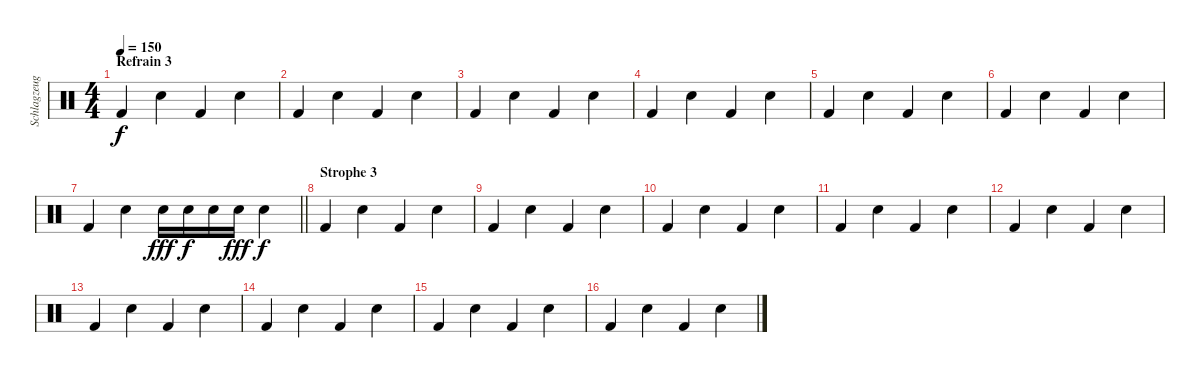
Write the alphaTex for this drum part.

\track ("Schlagzeug" "Schlagzeug") {instrument percussion}
\staff {score}
\articulation defaults
\ts (4 4)
\section ("" "Refrain 3")
\tempo 150
\clef neutral
\ks c "Kick (hit) 2".4{dy f} "Electric Snare (hit)".4 "Kick (hit) 2".4 "Electric Snare (hit)".4
|
"Kick (hit) 2".4 "Electric Snare (hit)".4 "Kick (hit) 2".4 "Electric Snare (hit)".4 |
"Kick (hit) 2".4 "Electric Snare (hit)".4 "Kick (hit) 2".4 "Electric Snare (hit)".4 |
"Kick (hit) 2".4 "Electric Snare (hit)".4 "Kick (hit) 2".4 "Electric Snare (hit)".4 |
"Kick (hit) 2".4 "Electric Snare (hit)".4 "Kick (hit) 2".4 "Electric Snare (hit)".4 |
"Kick (hit) 2".4 "Electric Snare (hit)".4 "Kick (hit) 2".4 "Electric Snare (hit)".4 |
\barLineRight lightlight "Kick (hit) 2".4 "Electric Snare (hit)".4 "Electric Snare (hit)".16{dy fff} "Electric Snare (hit)".16{dy f} "Electric Snare (hit)".16 "Electric Snare (hit)".16{dy fff} "Electric Snare (hit)".4{dy f}
|
\section ("" "Strophe 3")
"Kick (hit) 2".4 "Electric Snare (hit)".4 "Kick (hit) 2".4 "Electric Snare (hit)".4 |
"Kick (hit) 2".4 "Electric Snare (hit)".4 "Kick (hit) 2".4 "Electric Snare (hit)".4 |
"Kick (hit) 2".4 "Electric Snare (hit)".4 "Kick (hit) 2".4 "Electric Snare (hit)".4 |
"Kick (hit) 2".4 "Electric Snare (hit)".4 "Kick (hit) 2".4 "Electric Snare (hit)".4 |
"Kick (hit) 2".4 "Electric Snare (hit)".4 "Kick (hit) 2".4 "Electric Snare (hit)".4 |
"Kick (hit) 2".4 "Electric Snare (hit)".4 "Kick (hit) 2".4 "Electric Snare (hit)".4 |
"Kick (hit) 2".4 "Electric Snare (hit)".4 "Kick (hit) 2".4 "Electric Snare (hit)".4 |
"Kick (hit) 2".4 "Electric Snare (hit)".4 "Kick (hit) 2".4 "Electric Snare (hit)".4 |
"Kick (hit) 2".4 "Electric Snare (hit)".4 "Kick (hit) 2".4 "Electric Snare (hit)".4
